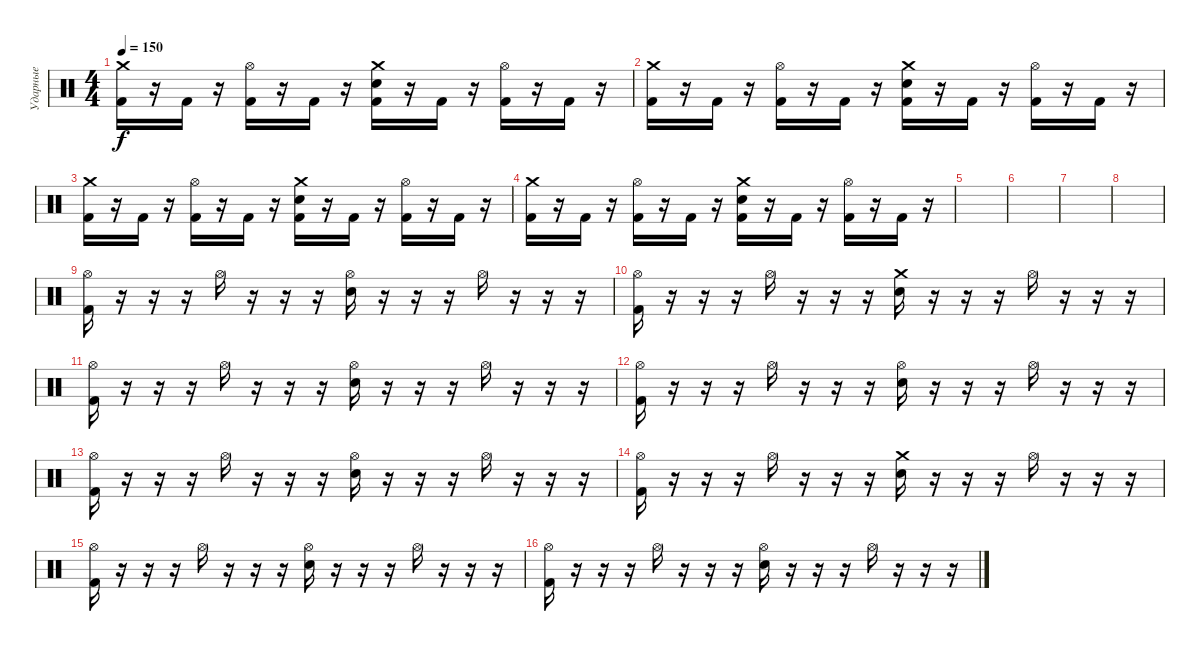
\track ("Ударные" "Ударные") {instrument percussion}
\staff {score}
\articulation defaults
\ts (4 4)
\tempo 150
\clef neutral
\ks c
("Crash medium (hit)" "Kick (hit) 2").16{dy f} r.16 "Kick (hit) 2".16 r.16 ("Hi-Hat (open)" "Kick (hit) 2").16 r.16 "Kick (hit) 2".16 r.16 ("Crash medium (hit)" "Electric Snare (hit)" "Kick (hit) 2").16 r.16 "Kick (hit) 2".16 r.16 ("Hi-Hat (open)" "Kick (hit) 2").16 r.16 "Kick (hit) 2".16 r.16 |
("Crash medium (hit)" "Kick (hit) 2").16 r.16 "Kick (hit) 2".16 r.16 ("Hi-Hat (open)" "Kick (hit) 2").16 r.16 "Kick (hit) 2".16 r.16 ("Crash medium (hit)" "Electric Snare (hit)" "Kick (hit) 2").16 r.16 "Kick (hit) 2".16 r.16 ("Hi-Hat (open)" "Kick (hit) 2").16 r.16 "Kick (hit) 2".16 r.16 |
("Crash medium (hit)" "Kick (hit) 2").16 r.16 "Kick (hit) 2".16 r.16 ("Hi-Hat (open)" "Kick (hit) 2").16 r.16 "Kick (hit) 2".16 r.16 ("Crash medium (hit)" "Electric Snare (hit)" "Kick (hit) 2").16 r.16 "Kick (hit) 2".16 r.16 ("Hi-Hat (open)" "Kick (hit) 2").16 r.16 "Kick (hit) 2".16 r.16 |
("Crash medium (hit)" "Kick (hit) 2").16 r.16 "Kick (hit) 2".16 r.16 ("Hi-Hat (open)" "Kick (hit) 2").16 r.16 "Kick (hit) 2".16 r.16 ("Crash medium (hit)" "Electric Snare (hit)" "Kick (hit) 2").16 r.16 "Kick (hit) 2".16 r.16 ("Hi-Hat (open)" "Kick (hit) 2").16 r.16 "Kick (hit) 2".16 r.16 |
|
|
|
|
("Hi-Hat (open)" "Kick (hit) 2").16 r.16 r.16 r.16 "Hi-Hat (open)".16 r.16 r.16 r.16 ("Hi-Hat (open)" "Electric Snare (hit)").16 r.16 r.16 r.16 "Hi-Hat (open)".16 r.16 r.16 r.16 |
("Hi-Hat (open)" "Kick (hit) 2").16 r.16 r.16 r.16 "Hi-Hat (open)".16 r.16 r.16 r.16 ("Crash medium (hit)" "Electric Snare (hit)").16 r.16 r.16 r.16 "Hi-Hat (open)".16 r.16 r.16 r.16 |
("Hi-Hat (open)" "Kick (hit) 2").16 r.16 r.16 r.16 "Hi-Hat (open)".16 r.16 r.16 r.16 ("Hi-Hat (open)" "Electric Snare (hit)").16 r.16 r.16 r.16 "Hi-Hat (open)".16 r.16 r.16 r.16 |
("Hi-Hat (open)" "Kick (hit) 2").16 r.16 r.16 r.16 "Hi-Hat (open)".16 r.16 r.16 r.16 ("Hi-Hat (open)" "Electric Snare (hit)").16 r.16 r.16 r.16 "Hi-Hat (open)".16 r.16 r.16 r.16 |
("Hi-Hat (open)" "Kick (hit) 2").16 r.16 r.16 r.16 "Hi-Hat (open)".16 r.16 r.16 r.16 ("Hi-Hat (open)" "Electric Snare (hit)").16 r.16 r.16 r.16 "Hi-Hat (open)".16 r.16 r.16 r.16 |
("Hi-Hat (open)" "Kick (hit) 2").16 r.16 r.16 r.16 "Hi-Hat (open)".16 r.16 r.16 r.16 ("Crash medium (hit)" "Electric Snare (hit)").16 r.16 r.16 r.16 "Hi-Hat (open)".16 r.16 r.16 r.16 |
("Hi-Hat (open)" "Kick (hit) 2").16 r.16 r.16 r.16 "Hi-Hat (open)".16 r.16 r.16 r.16 ("Hi-Hat (open)" "Electric Snare (hit)").16 r.16 r.16 r.16 "Hi-Hat (open)".16 r.16 r.16 r.16 |
("Hi-Hat (open)" "Kick (hit) 2").16 r.16 r.16 r.16 "Hi-Hat (open)".16 r.16 r.16 r.16 ("Hi-Hat (open)" "Electric Snare (hit)").16 r.16 r.16 r.16 "Hi-Hat (open)".16 r.16 r.16 r.16
